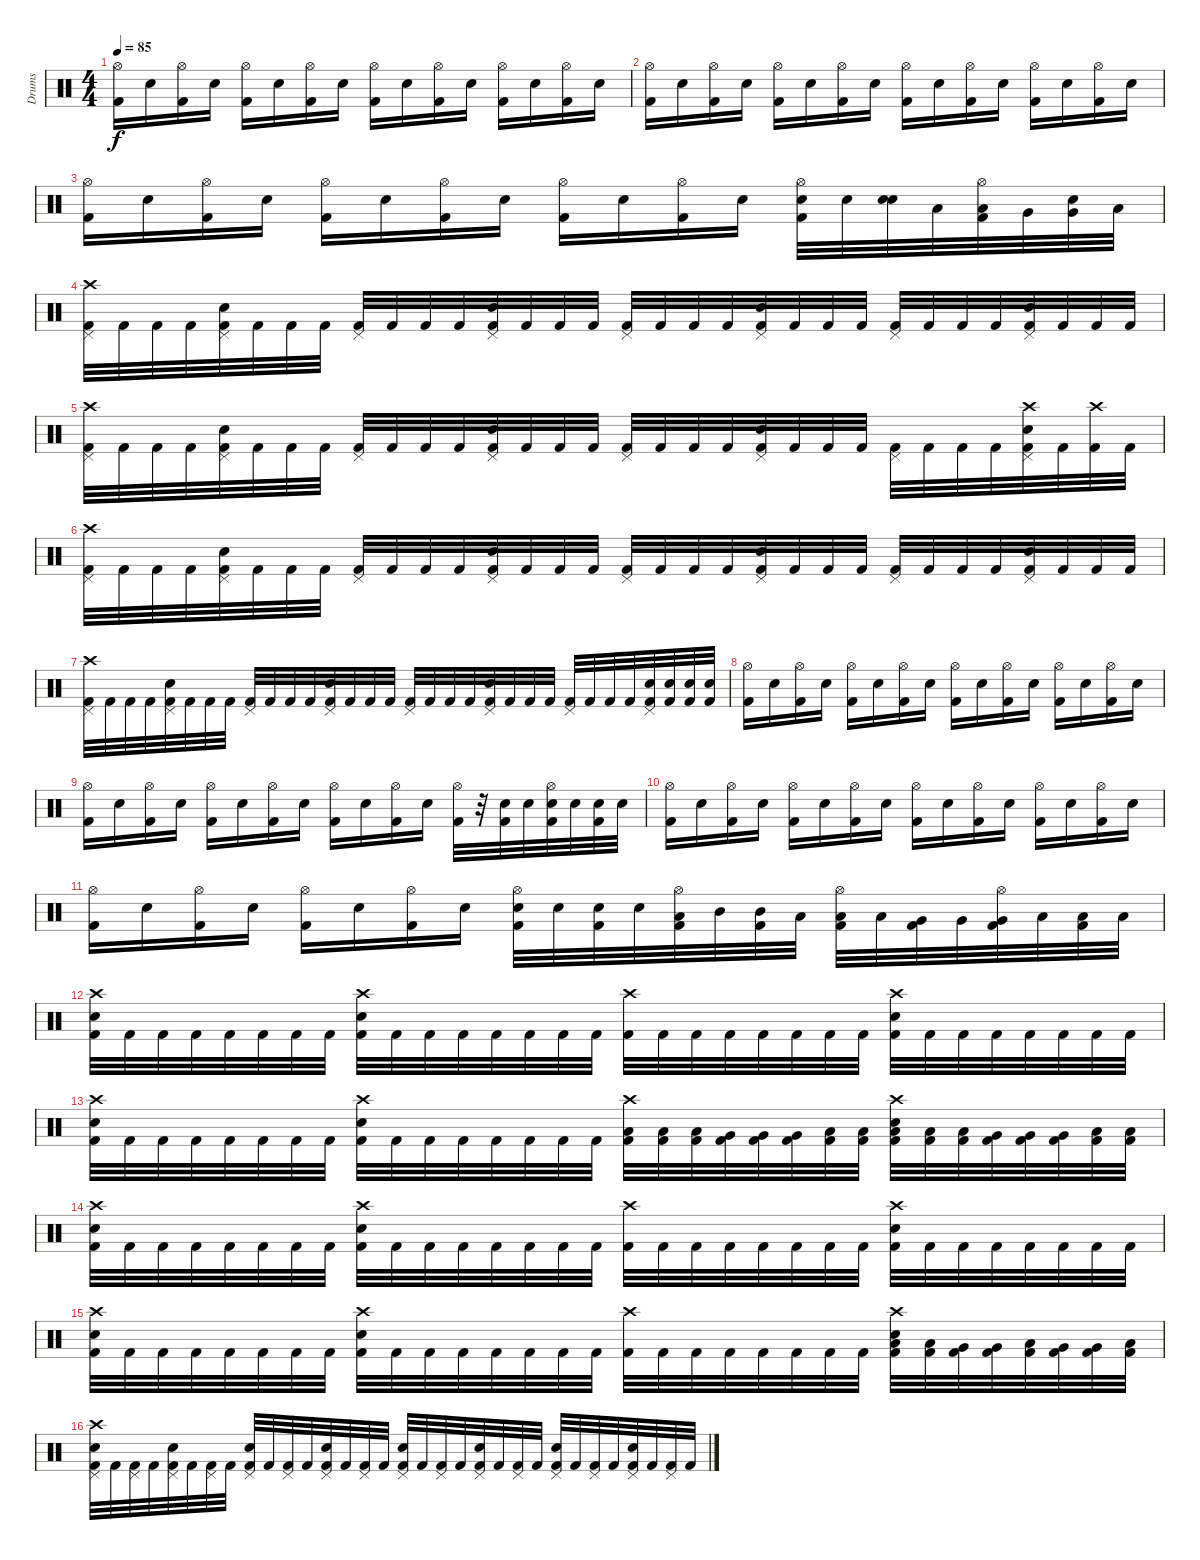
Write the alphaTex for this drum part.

\track ("Drums" "Drums") {instrument percussion}
\staff {score}
\articulation defaults
\ts (4 4)
\tempo 85
\clef neutral
\ks c
("Hi-Hat (open)" "Kick (hit) 2").16{dy f} "Electric Snare (hit)".16 ("Hi-Hat (open)" "Kick (hit) 2").16 "Electric Snare (hit)".16 ("Hi-Hat (open)" "Kick (hit) 2").16 "Electric Snare (hit)".16 ("Hi-Hat (open)" "Kick (hit) 2").16 "Electric Snare (hit)".16 ("Hi-Hat (open)" "Kick (hit) 2").16 "Electric Snare (hit)".16 ("Hi-Hat (open)" "Kick (hit) 2").16 "Electric Snare (hit)".16 ("Hi-Hat (open)" "Kick (hit) 2").16 "Electric Snare (hit)".16 ("Hi-Hat (open)" "Kick (hit) 2").16 "Electric Snare (hit)".16 |
("Hi-Hat (open)" "Kick (hit) 2").16 "Electric Snare (hit)".16 ("Hi-Hat (open)" "Kick (hit) 2").16 "Electric Snare (hit)".16 ("Hi-Hat (open)" "Kick (hit) 2").16 "Electric Snare (hit)".16 ("Hi-Hat (open)" "Kick (hit) 2").16 "Electric Snare (hit)".16 ("Hi-Hat (open)" "Kick (hit) 2").16 "Electric Snare (hit)".16 ("Hi-Hat (open)" "Kick (hit) 2").16 "Electric Snare (hit)".16 ("Hi-Hat (open)" "Kick (hit) 2").16 "Electric Snare (hit)".16 ("Hi-Hat (open)" "Kick (hit) 2").16 "Electric Snare (hit)".16 |
("Hi-Hat (open)" "Kick (hit) 2").16 "Electric Snare (hit)".16 ("Hi-Hat (open)" "Kick (hit) 2").16 "Electric Snare (hit)".16 ("Hi-Hat (open)" "Kick (hit) 2").16 "Electric Snare (hit)".16 ("Hi-Hat (open)" "Kick (hit) 2").16 "Electric Snare (hit)".16 ("Hi-Hat (open)" "Kick (hit) 2").16 "Electric Snare (hit)".16 ("Hi-Hat (open)" "Kick (hit) 2").16 "Electric Snare (hit)".16 ("Hi-Hat (open)" "Electric Snare (hit)" "Kick (hit) 2").32 "Electric Snare (hit)".32 ("Electric Snare (hit)" "Electric Snare (hit)").32 "Low Tom (hit)".32 ("Hi-Hat (open)" "Low Tom (hit)" "Kick (hit) 2").32 "Very Low Tom (hit)".32 ("Very Low Tom (hit)" "Electric Snare (hit)").32 "Low Floor Tom (hit)".32 |
("Pedal Hi-Hat (hit)" "Crash high (hit)" "Kick (hit) 2").32 "Kick (hit) 2".32 "Kick (hit) 2".32 "Kick (hit) 2".32 ("Pedal Hi-Hat (hit)" "Electric Snare (hit)" "Kick (hit) 2").32 "Kick (hit) 2".32 "Kick (hit) 2".32 "Kick (hit) 2".32 ("Pedal Hi-Hat (hit)" "Kick (hit) 2").32 "Kick (hit) 2".32 "Kick (hit) 2".32 "Kick (hit) 2".32 ("Pedal Hi-Hat (hit)" "Electric Snare (hit)" "Kick (hit) 2").32 "Kick (hit) 2".32 "Kick (hit) 2".32 "Kick (hit) 2".32 ("Pedal Hi-Hat (hit)" "Kick (hit) 2").32 "Kick (hit) 2".32 "Kick (hit) 2".32 "Kick (hit) 2".32 ("Pedal Hi-Hat (hit)" "Electric Snare (hit)" "Kick (hit) 2").32 "Kick (hit) 2".32 "Kick (hit) 2".32 "Kick (hit) 2".32 ("Pedal Hi-Hat (hit)" "Kick (hit) 2").32 "Kick (hit) 2".32 "Kick (hit) 2".32 "Kick (hit) 2".32 ("Pedal Hi-Hat (hit)" "Electric Snare (hit)" "Kick (hit) 2").32 "Kick (hit) 2".32 "Kick (hit) 2".32 "Kick (hit) 2".32 |
("Pedal Hi-Hat (hit)" "Crash high (hit)" "Kick (hit) 2").32 "Kick (hit) 2".32 "Kick (hit) 2".32 "Kick (hit) 2".32 ("Pedal Hi-Hat (hit)" "Electric Snare (hit)" "Kick (hit) 2").32 "Kick (hit) 2".32 "Kick (hit) 2".32 "Kick (hit) 2".32 ("Pedal Hi-Hat (hit)" "Kick (hit) 2").32 "Kick (hit) 2".32 "Kick (hit) 2".32 "Kick (hit) 2".32 ("Pedal Hi-Hat (hit)" "Electric Snare (hit)" "Kick (hit) 2").32 "Kick (hit) 2".32 "Kick (hit) 2".32 "Kick (hit) 2".32 ("Pedal Hi-Hat (hit)" "Kick (hit) 2").32 "Kick (hit) 2".32 "Kick (hit) 2".32 "Kick (hit) 2".32 ("Pedal Hi-Hat (hit)" "Electric Snare (hit)" "Kick (hit) 2").32 "Kick (hit) 2".32 "Kick (hit) 2".32 "Kick (hit) 2".32 ("Pedal Hi-Hat (hit)" "Kick (hit) 2").32 "Kick (hit) 2".32 "Kick (hit) 2".32 "Kick (hit) 2".32 ("Pedal Hi-Hat (hit)" "Electric Snare (hit)" "Crash high (hit)" "Kick (hit) 2").32 "Kick (hit) 2".32 ("Crash high (hit)" "Kick (hit) 2").32 "Kick (hit) 2".32 |
("Pedal Hi-Hat (hit)" "Crash high (hit)" "Kick (hit) 2").32 "Kick (hit) 2".32 "Kick (hit) 2".32 "Kick (hit) 2".32 ("Pedal Hi-Hat (hit)" "Electric Snare (hit)" "Kick (hit) 2").32 "Kick (hit) 2".32 "Kick (hit) 2".32 "Kick (hit) 2".32 ("Pedal Hi-Hat (hit)" "Kick (hit) 2").32 "Kick (hit) 2".32 "Kick (hit) 2".32 "Kick (hit) 2".32 ("Pedal Hi-Hat (hit)" "Electric Snare (hit)" "Kick (hit) 2").32 "Kick (hit) 2".32 "Kick (hit) 2".32 "Kick (hit) 2".32 ("Pedal Hi-Hat (hit)" "Kick (hit) 2").32 "Kick (hit) 2".32 "Kick (hit) 2".32 "Kick (hit) 2".32 ("Pedal Hi-Hat (hit)" "Electric Snare (hit)" "Kick (hit) 2").32 "Kick (hit) 2".32 "Kick (hit) 2".32 "Kick (hit) 2".32 ("Pedal Hi-Hat (hit)" "Kick (hit) 2").32 "Kick (hit) 2".32 "Kick (hit) 2".32 "Kick (hit) 2".32 ("Pedal Hi-Hat (hit)" "Electric Snare (hit)" "Kick (hit) 2").32 "Kick (hit) 2".32 "Kick (hit) 2".32 "Kick (hit) 2".32 |
("Pedal Hi-Hat (hit)" "Crash high (hit)" "Kick (hit) 2").32 "Kick (hit) 2".32 "Kick (hit) 2".32 "Kick (hit) 2".32 ("Pedal Hi-Hat (hit)" "Electric Snare (hit)" "Kick (hit) 2").32 "Kick (hit) 2".32 "Kick (hit) 2".32 "Kick (hit) 2".32 ("Pedal Hi-Hat (hit)" "Kick (hit) 2").32 "Kick (hit) 2".32 "Kick (hit) 2".32 "Kick (hit) 2".32 ("Pedal Hi-Hat (hit)" "Electric Snare (hit)" "Kick (hit) 2").32 "Kick (hit) 2".32 "Kick (hit) 2".32 "Kick (hit) 2".32 ("Pedal Hi-Hat (hit)" "Kick (hit) 2").32 "Kick (hit) 2".32 "Kick (hit) 2".32 "Kick (hit) 2".32 ("Pedal Hi-Hat (hit)" "Electric Snare (hit)" "Kick (hit) 2").32 "Kick (hit) 2".32 "Kick (hit) 2".32 "Kick (hit) 2".32 ("Pedal Hi-Hat (hit)" "Kick (hit) 2").32 "Kick (hit) 2".32 "Kick (hit) 2".32 "Kick (hit) 2".32 ("Pedal Hi-Hat (hit)" "Electric Snare (hit)" "Kick (hit) 2").32 ("Electric Snare (hit)" "Kick (hit) 2").32 ("Electric Snare (hit)" "Kick (hit) 2").32 ("Electric Snare (hit)" "Kick (hit) 2").32 |
("Hi-Hat (open)" "Kick (hit) 2").16 "Electric Snare (hit)".16 ("Hi-Hat (open)" "Kick (hit) 2").16 "Electric Snare (hit)".16 ("Hi-Hat (open)" "Kick (hit) 2").16 "Electric Snare (hit)".16 ("Hi-Hat (open)" "Kick (hit) 2").16 "Electric Snare (hit)".16 ("Hi-Hat (open)" "Kick (hit) 2").16 "Electric Snare (hit)".16 ("Hi-Hat (open)" "Kick (hit) 2").16 "Electric Snare (hit)".16 ("Hi-Hat (open)" "Kick (hit) 2").16 "Electric Snare (hit)".16 ("Hi-Hat (open)" "Kick (hit) 2").16 "Electric Snare (hit)".16 |
("Hi-Hat (open)" "Kick (hit) 2").16 "Electric Snare (hit)".16 ("Hi-Hat (open)" "Kick (hit) 2").16 "Electric Snare (hit)".16 ("Hi-Hat (open)" "Kick (hit) 2").16 "Electric Snare (hit)".16 ("Hi-Hat (open)" "Kick (hit) 2").16 "Electric Snare (hit)".16 ("Hi-Hat (open)" "Kick (hit) 2").16 "Electric Snare (hit)".16 ("Hi-Hat (open)" "Kick (hit) 2").16 "Electric Snare (hit)".16 ("Hi-Hat (open)" "Kick (hit) 2").32 r.32 ("Electric Snare (hit)" "Kick (hit) 2").32 "Electric Snare (hit)".32 ("Hi-Hat (open)" "Electric Snare (hit)" "Kick (hit) 2").32 "Electric Snare (hit)".32 ("Electric Snare (hit)" "Kick (hit) 2").32 "Electric Snare (hit)".32 |
("Hi-Hat (open)" "Kick (hit) 2").16 "Electric Snare (hit)".16 ("Hi-Hat (open)" "Kick (hit) 2").16 "Electric Snare (hit)".16 ("Hi-Hat (open)" "Kick (hit) 2").16 "Electric Snare (hit)".16 ("Hi-Hat (open)" "Kick (hit) 2").16 "Electric Snare (hit)".16 ("Hi-Hat (open)" "Kick (hit) 2").16 "Electric Snare (hit)".16 ("Hi-Hat (open)" "Kick (hit) 2").16 "Electric Snare (hit)".16 ("Hi-Hat (open)" "Kick (hit) 2").16 "Electric Snare (hit)".16 ("Hi-Hat (open)" "Kick (hit) 2").16 "Electric Snare (hit)".16 |
("Hi-Hat (open)" "Kick (hit) 2").16 "Electric Snare (hit)".16 ("Hi-Hat (open)" "Kick (hit) 2").16 "Electric Snare (hit)".16 ("Hi-Hat (open)" "Kick (hit) 2").16 "Electric Snare (hit)".16 ("Hi-Hat (open)" "Kick (hit) 2").16 "Electric Snare (hit)".16 ("Hi-Hat (open)" "Electric Snare (hit)" "Kick (hit) 2").32 "Electric Snare (hit)".32 ("Electric Snare (hit)" "Kick (hit) 2").32 "Electric Snare (hit)".32 ("Hi-Hat (open)" "Low Tom (hit)" "Kick (hit) 2").32 "Mid Tom (hit)".32 ("Mid Tom (hit)" "Kick (hit) 2").32 "Low Tom (hit)".32 ("Hi-Hat (open)" "Low Tom (hit)" "Kick (hit) 2").32 "Low Tom (hit)".32 ("Very Low Tom (hit)" "Kick (hit) 2").32 "Very Low Tom (hit)".32 ("Hi-Hat (open)" "Very Low Tom (hit)" "Kick (hit) 2").32 "Low Floor Tom (hit)".32 ("Low Floor Tom (hit)" "Kick (hit) 2").32 "Low Floor Tom (hit)".32 |
("Electric Snare (hit)" "Crash high (hit)" "Kick (hit) 2").32 "Kick (hit) 2".32 "Kick (hit) 2".32 "Kick (hit) 2".32 "Kick (hit) 2".32 "Kick (hit) 2".32 "Kick (hit) 2".32 "Kick (hit) 2".32 ("Electric Snare (hit)" "Crash high (hit)" "Kick (hit) 2").32 "Kick (hit) 2".32 "Kick (hit) 2".32 "Kick (hit) 2".32 "Kick (hit) 2".32 "Kick (hit) 2".32 "Kick (hit) 2".32 "Kick (hit) 2".32 ("Crash high (hit)" "Kick (hit) 2").32 "Kick (hit) 2".32 "Kick (hit) 2".32 "Kick (hit) 2".32 "Kick (hit) 2".32 "Kick (hit) 2".32 "Kick (hit) 2".32 "Kick (hit) 2".32 ("Electric Snare (hit)" "Crash high (hit)" "Kick (hit) 2").32 "Kick (hit) 2".32 "Kick (hit) 2".32 "Kick (hit) 2".32 "Kick (hit) 2".32 "Kick (hit) 2".32 "Kick (hit) 2".32 "Kick (hit) 2".32 |
("Electric Snare (hit)" "Crash high (hit)" "Kick (hit) 2").32 "Kick (hit) 2".32 "Kick (hit) 2".32 "Kick (hit) 2".32 "Kick (hit) 2".32 "Kick (hit) 2".32 "Kick (hit) 2".32 "Kick (hit) 2".32 ("Electric Snare (hit)" "Crash high (hit)" "Kick (hit) 2").32 "Kick (hit) 2".32 "Kick (hit) 2".32 "Kick (hit) 2".32 "Kick (hit) 2".32 "Kick (hit) 2".32 "Kick (hit) 2".32 "Kick (hit) 2".32 ("Low Tom (hit)" "Crash high (hit)" "Kick (hit) 2").32 ("Low Tom (hit)" "Kick (hit) 2").32 ("Low Tom (hit)" "Kick (hit) 2").32 ("Very Low Tom (hit)" "Kick (hit) 2").32 ("Very Low Tom (hit)" "Kick (hit) 2").32 ("Very Low Tom (hit)" "Kick (hit) 2").32 ("Low Floor Tom (hit)" "Kick (hit) 2").32 ("Low Floor Tom (hit)" "Kick (hit) 2").32 ("Low Tom (hit)" "Electric Snare (hit)" "Crash high (hit)" "Kick (hit) 2").32 ("Low Tom (hit)" "Kick (hit) 2").32 ("Low Tom (hit)" "Kick (hit) 2").32 ("Very Low Tom (hit)" "Kick (hit) 2").32 ("Very Low Tom (hit)" "Kick (hit) 2").32 ("Very Low Tom (hit)" "Kick (hit) 2").32 ("Low Floor Tom (hit)" "Kick (hit) 2").32 ("Low Floor Tom (hit)" "Kick (hit) 2").32 |
("Electric Snare (hit)" "Crash high (hit)" "Kick (hit) 2").32 "Kick (hit) 2".32 "Kick (hit) 2".32 "Kick (hit) 2".32 "Kick (hit) 2".32 "Kick (hit) 2".32 "Kick (hit) 2".32 "Kick (hit) 2".32 ("Electric Snare (hit)" "Crash high (hit)" "Kick (hit) 2").32 "Kick (hit) 2".32 "Kick (hit) 2".32 "Kick (hit) 2".32 "Kick (hit) 2".32 "Kick (hit) 2".32 "Kick (hit) 2".32 "Kick (hit) 2".32 ("Crash high (hit)" "Kick (hit) 2").32 "Kick (hit) 2".32 "Kick (hit) 2".32 "Kick (hit) 2".32 "Kick (hit) 2".32 "Kick (hit) 2".32 "Kick (hit) 2".32 "Kick (hit) 2".32 ("Electric Snare (hit)" "Crash high (hit)" "Kick (hit) 2").32 "Kick (hit) 2".32 "Kick (hit) 2".32 "Kick (hit) 2".32 "Kick (hit) 2".32 "Kick (hit) 2".32 "Kick (hit) 2".32 "Kick (hit) 2".32 |
("Electric Snare (hit)" "Crash high (hit)" "Kick (hit) 2").32 "Kick (hit) 2".32 "Kick (hit) 2".32 "Kick (hit) 2".32 "Kick (hit) 2".32 "Kick (hit) 2".32 "Kick (hit) 2".32 "Kick (hit) 2".32 ("Electric Snare (hit)" "Crash high (hit)" "Kick (hit) 2").32 "Kick (hit) 2".32 "Kick (hit) 2".32 "Kick (hit) 2".32 "Kick (hit) 2".32 "Kick (hit) 2".32 "Kick (hit) 2".32 "Kick (hit) 2".32 ("Crash high (hit)" "Kick (hit) 2").32 "Kick (hit) 2".32 "Kick (hit) 2".32 "Kick (hit) 2".32 "Kick (hit) 2".32 "Kick (hit) 2".32 "Kick (hit) 2".32 "Kick (hit) 2".32 ("Low Tom (hit)" "Electric Snare (hit)" "Crash high (hit)" "Kick (hit) 2").32 ("Low Tom (hit)" "Kick (hit) 2").32 ("Very Low Tom (hit)" "Kick (hit) 2").32 ("Very Low Tom (hit)" "Kick (hit) 2").32 ("Low Tom (hit)" "Kick (hit) 2").32 ("Very Low Tom (hit)" "Kick (hit) 2").32 ("Very Low Tom (hit)" "Kick (hit) 2").32 ("Low Floor Tom (hit)" "Kick (hit) 2").32 |
("Pedal Hi-Hat (hit)" "Electric Snare (hit)" "Crash high (hit)" "Kick (hit) 2").32 "Kick (hit) 2".32 ("Pedal Hi-Hat (hit)" "Kick (hit) 2").32 "Kick (hit) 2".32 ("Pedal Hi-Hat (hit)" "Electric Snare (hit)" "Kick (hit) 2").32 "Kick (hit) 2".32 ("Pedal Hi-Hat (hit)" "Kick (hit) 2").32 "Kick (hit) 2".32 ("Pedal Hi-Hat (hit)" "Electric Snare (hit)" "Kick (hit) 2").32 "Kick (hit) 2".32 ("Pedal Hi-Hat (hit)" "Kick (hit) 2").32 "Kick (hit) 2".32 ("Pedal Hi-Hat (hit)" "Electric Snare (hit)" "Kick (hit) 2").32 "Kick (hit) 2".32 ("Pedal Hi-Hat (hit)" "Kick (hit) 2").32 "Kick (hit) 2".32 ("Pedal Hi-Hat (hit)" "Electric Snare (hit)" "Kick (hit) 2").32 "Kick (hit) 2".32 ("Pedal Hi-Hat (hit)" "Kick (hit) 2").32 "Kick (hit) 2".32 ("Pedal Hi-Hat (hit)" "Electric Snare (hit)" "Kick (hit) 2").32 "Kick (hit) 2".32 ("Pedal Hi-Hat (hit)" "Kick (hit) 2").32 "Kick (hit) 2".32 ("Pedal Hi-Hat (hit)" "Electric Snare (hit)" "Kick (hit) 2").32 "Kick (hit) 2".32 ("Pedal Hi-Hat (hit)" "Kick (hit) 2").32 "Kick (hit) 2".32 ("Pedal Hi-Hat (hit)" "Electric Snare (hit)" "Kick (hit) 2").32 "Kick (hit) 2".32 ("Pedal Hi-Hat (hit)" "Kick (hit) 2").32 "Kick (hit) 2".32
